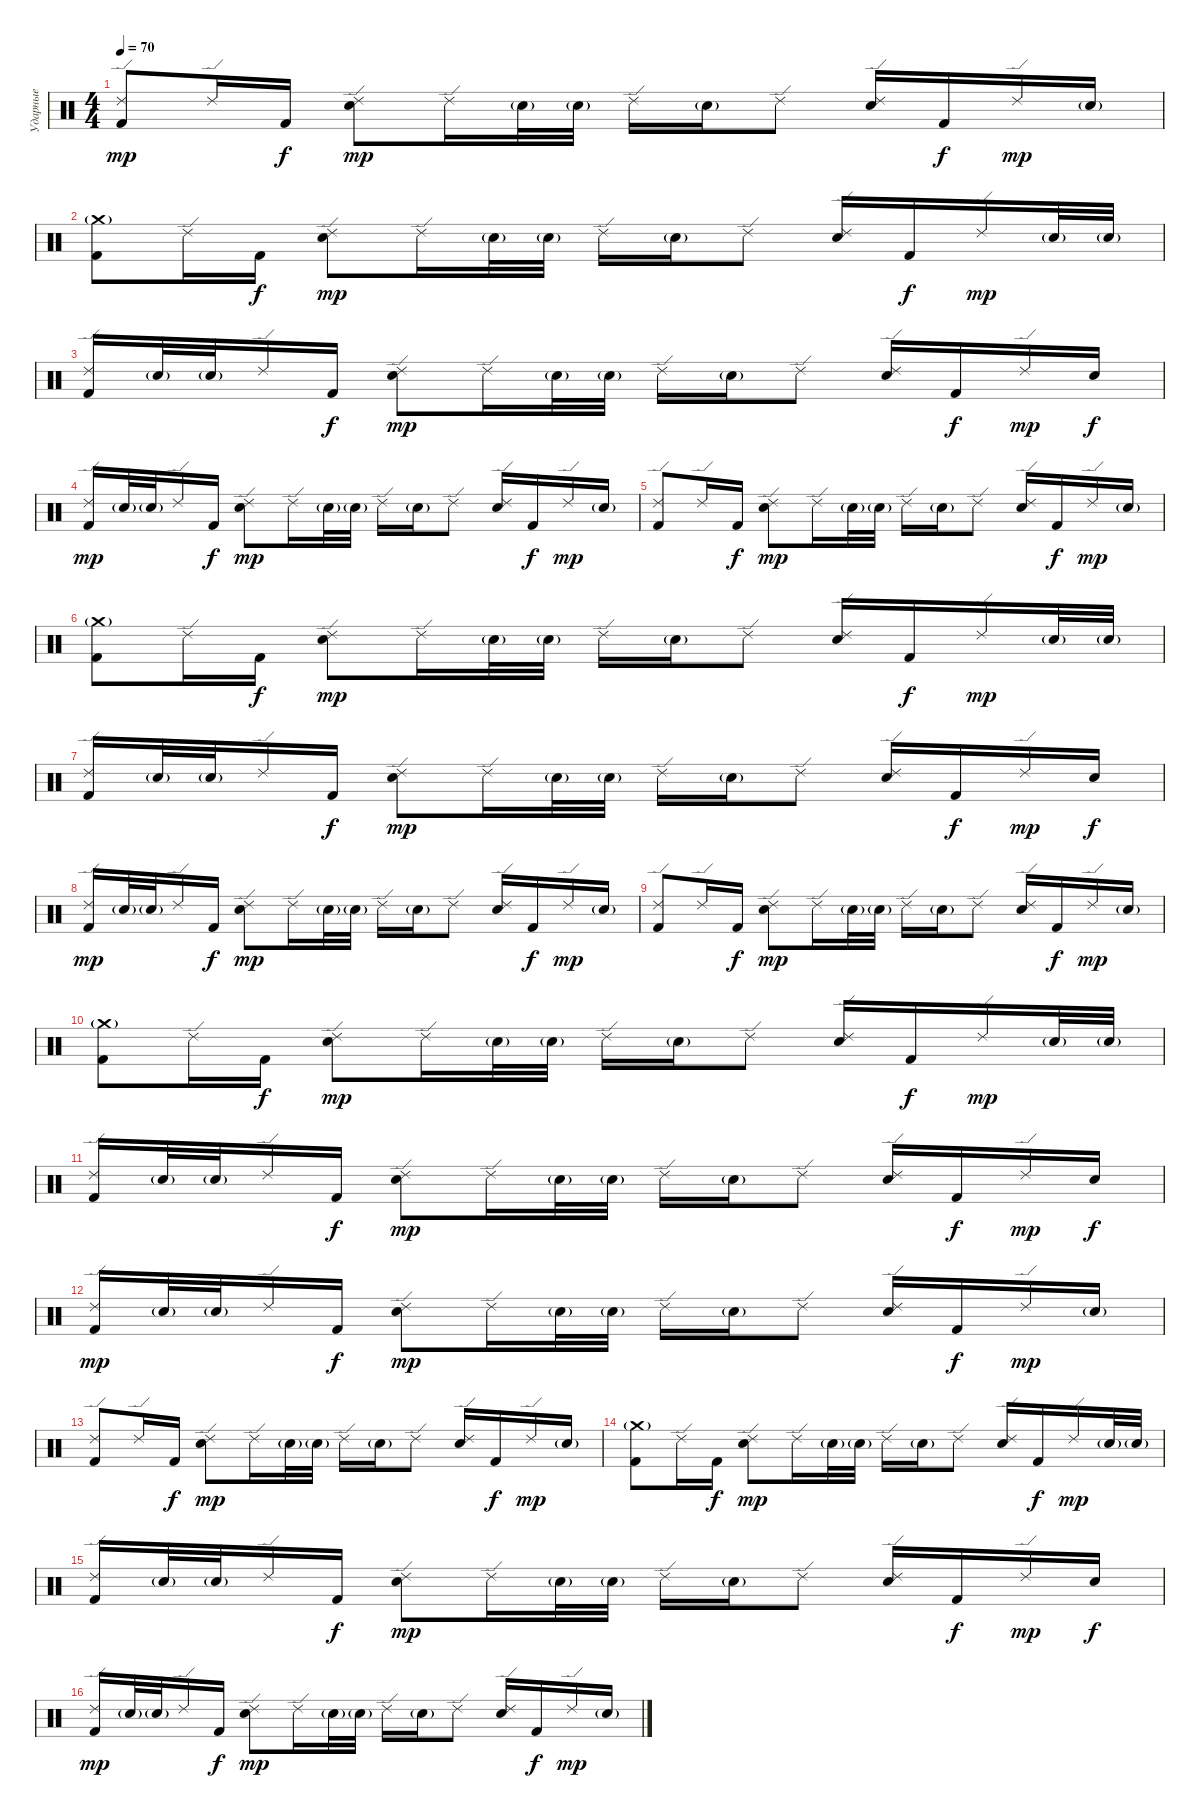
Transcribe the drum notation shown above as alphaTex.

\track ("Ударные" "Ударные") {instrument percussion}
\staff {score}
\articulation defaults
\ts (4 4)
\tempo 70
\clef neutral
\ks c
("Ride (edge) 2" "Kick (hit) 2").8{dy mp} "Ride (edge) 2".16 "Kick (hit) 2".16{dy f} ("Ride (edge) 2" "Snare (hit) 2").8{dy mp} "Ride (edge) 2".16 "Snare (hit) 2"{g}.32 "Snare (hit) 2"{g}.32 "Ride (edge) 2".16 "Snare (hit) 2"{g}.16 "Ride (edge) 2".8 ("Ride (edge) 2" "Snare (hit) 2").16 "Kick (hit) 2".16{dy f} "Ride (edge) 2".16{dy mp} "Snare (hit) 2"{g}.16 |
("Crash medium (hit)"{g} "Kick (hit) 2").8 "Ride (edge) 2".16 "Kick (hit) 2".16{dy f} ("Ride (edge) 2" "Snare (hit) 2").8{dy mp} "Ride (edge) 2".16 "Snare (hit) 2"{g}.32 "Snare (hit) 2"{g}.32 "Ride (edge) 2".16 "Snare (hit) 2"{g}.16 "Ride (edge) 2".8 ("Ride (edge) 2" "Snare (hit) 2").16 "Kick (hit) 2".16{dy f} "Ride (edge) 2".16{dy mp} "Snare (hit) 2"{g}.32 "Snare (hit) 2"{g}.32 |
("Ride (edge) 2" "Kick (hit) 2").16 "Snare (hit) 2"{g}.32 "Snare (hit) 2"{g}.32 "Ride (edge) 2".16 "Kick (hit) 2".16{dy f} ("Ride (edge) 2" "Snare (hit) 2").8{dy mp} "Ride (edge) 2".16 "Snare (hit) 2"{g}.32 "Snare (hit) 2"{g}.32 "Ride (edge) 2".16 "Snare (hit) 2"{g}.16 "Ride (edge) 2".8 ("Ride (edge) 2" "Snare (hit) 2").16 "Kick (hit) 2".16{dy f} "Ride (edge) 2".16{dy mp} "Snare (hit) 2".16{dy f} |
("Ride (edge) 2" "Kick (hit) 2").16{dy mp} "Snare (hit) 2"{g}.32 "Snare (hit) 2"{g}.32 "Ride (edge) 2".16 "Kick (hit) 2".16{dy f} ("Ride (edge) 2" "Snare (hit) 2").8{dy mp} "Ride (edge) 2".16 "Snare (hit) 2"{g}.32 "Snare (hit) 2"{g}.32 "Ride (edge) 2".16 "Snare (hit) 2"{g}.16 "Ride (edge) 2".8 ("Ride (edge) 2" "Snare (hit) 2").16 "Kick (hit) 2".16{dy f} "Ride (edge) 2".16{dy mp} "Snare (hit) 2"{g}.16 |
("Ride (edge) 2" "Kick (hit) 2").8 "Ride (edge) 2".16 "Kick (hit) 2".16{dy f} ("Ride (edge) 2" "Snare (hit) 2").8{dy mp} "Ride (edge) 2".16 "Snare (hit) 2"{g}.32 "Snare (hit) 2"{g}.32 "Ride (edge) 2".16 "Snare (hit) 2"{g}.16 "Ride (edge) 2".8 ("Ride (edge) 2" "Snare (hit) 2").16 "Kick (hit) 2".16{dy f} "Ride (edge) 2".16{dy mp} "Snare (hit) 2"{g}.16 |
("Crash medium (hit)"{g} "Kick (hit) 2").8 "Ride (edge) 2".16 "Kick (hit) 2".16{dy f} ("Ride (edge) 2" "Snare (hit) 2").8{dy mp} "Ride (edge) 2".16 "Snare (hit) 2"{g}.32 "Snare (hit) 2"{g}.32 "Ride (edge) 2".16 "Snare (hit) 2"{g}.16 "Ride (edge) 2".8 ("Ride (edge) 2" "Snare (hit) 2").16 "Kick (hit) 2".16{dy f} "Ride (edge) 2".16{dy mp} "Snare (hit) 2"{g}.32 "Snare (hit) 2"{g}.32 |
("Ride (edge) 2" "Kick (hit) 2").16 "Snare (hit) 2"{g}.32 "Snare (hit) 2"{g}.32 "Ride (edge) 2".16 "Kick (hit) 2".16{dy f} ("Ride (edge) 2" "Snare (hit) 2").8{dy mp} "Ride (edge) 2".16 "Snare (hit) 2"{g}.32 "Snare (hit) 2"{g}.32 "Ride (edge) 2".16 "Snare (hit) 2"{g}.16 "Ride (edge) 2".8 ("Ride (edge) 2" "Snare (hit) 2").16 "Kick (hit) 2".16{dy f} "Ride (edge) 2".16{dy mp} "Snare (hit) 2".16{dy f} |
("Ride (edge) 2" "Kick (hit) 2").16{dy mp} "Snare (hit) 2"{g}.32 "Snare (hit) 2"{g}.32 "Ride (edge) 2".16 "Kick (hit) 2".16{dy f} ("Ride (edge) 2" "Snare (hit) 2").8{dy mp} "Ride (edge) 2".16 "Snare (hit) 2"{g}.32 "Snare (hit) 2"{g}.32 "Ride (edge) 2".16 "Snare (hit) 2"{g}.16 "Ride (edge) 2".8 ("Ride (edge) 2" "Snare (hit) 2").16 "Kick (hit) 2".16{dy f} "Ride (edge) 2".16{dy mp} "Snare (hit) 2"{g}.16 |
("Ride (edge) 2" "Kick (hit) 2").8 "Ride (edge) 2".16 "Kick (hit) 2".16{dy f} ("Ride (edge) 2" "Snare (hit) 2").8{dy mp} "Ride (edge) 2".16 "Snare (hit) 2"{g}.32 "Snare (hit) 2"{g}.32 "Ride (edge) 2".16 "Snare (hit) 2"{g}.16 "Ride (edge) 2".8 ("Ride (edge) 2" "Snare (hit) 2").16 "Kick (hit) 2".16{dy f} "Ride (edge) 2".16{dy mp} "Snare (hit) 2"{g}.16 |
("Crash medium (hit)"{g} "Kick (hit) 2").8 "Ride (edge) 2".16 "Kick (hit) 2".16{dy f} ("Ride (edge) 2" "Snare (hit) 2").8{dy mp} "Ride (edge) 2".16 "Snare (hit) 2"{g}.32 "Snare (hit) 2"{g}.32 "Ride (edge) 2".16 "Snare (hit) 2"{g}.16 "Ride (edge) 2".8 ("Ride (edge) 2" "Snare (hit) 2").16 "Kick (hit) 2".16{dy f} "Ride (edge) 2".16{dy mp} "Snare (hit) 2"{g}.32 "Snare (hit) 2"{g}.32 |
("Ride (edge) 2" "Kick (hit) 2").16 "Snare (hit) 2"{g}.32 "Snare (hit) 2"{g}.32 "Ride (edge) 2".16 "Kick (hit) 2".16{dy f} ("Ride (edge) 2" "Snare (hit) 2").8{dy mp} "Ride (edge) 2".16 "Snare (hit) 2"{g}.32 "Snare (hit) 2"{g}.32 "Ride (edge) 2".16 "Snare (hit) 2"{g}.16 "Ride (edge) 2".8 ("Ride (edge) 2" "Snare (hit) 2").16 "Kick (hit) 2".16{dy f} "Ride (edge) 2".16{dy mp} "Snare (hit) 2".16{dy f} |
("Ride (edge) 2" "Kick (hit) 2").16{dy mp} "Snare (hit) 2"{g}.32 "Snare (hit) 2"{g}.32 "Ride (edge) 2".16 "Kick (hit) 2".16{dy f} ("Ride (edge) 2" "Snare (hit) 2").8{dy mp} "Ride (edge) 2".16 "Snare (hit) 2"{g}.32 "Snare (hit) 2"{g}.32 "Ride (edge) 2".16 "Snare (hit) 2"{g}.16 "Ride (edge) 2".8 ("Ride (edge) 2" "Snare (hit) 2").16 "Kick (hit) 2".16{dy f} "Ride (edge) 2".16{dy mp} "Snare (hit) 2"{g}.16 |
("Ride (edge) 2" "Kick (hit) 2").8 "Ride (edge) 2".16 "Kick (hit) 2".16{dy f} ("Ride (edge) 2" "Snare (hit) 2").8{dy mp} "Ride (edge) 2".16 "Snare (hit) 2"{g}.32 "Snare (hit) 2"{g}.32 "Ride (edge) 2".16 "Snare (hit) 2"{g}.16 "Ride (edge) 2".8 ("Ride (edge) 2" "Snare (hit) 2").16 "Kick (hit) 2".16{dy f} "Ride (edge) 2".16{dy mp} "Snare (hit) 2"{g}.16 |
("Crash medium (hit)"{g} "Kick (hit) 2").8 "Ride (edge) 2".16 "Kick (hit) 2".16{dy f} ("Ride (edge) 2" "Snare (hit) 2").8{dy mp} "Ride (edge) 2".16 "Snare (hit) 2"{g}.32 "Snare (hit) 2"{g}.32 "Ride (edge) 2".16 "Snare (hit) 2"{g}.16 "Ride (edge) 2".8 ("Ride (edge) 2" "Snare (hit) 2").16 "Kick (hit) 2".16{dy f} "Ride (edge) 2".16{dy mp} "Snare (hit) 2"{g}.32 "Snare (hit) 2"{g}.32 |
("Ride (edge) 2" "Kick (hit) 2").16 "Snare (hit) 2"{g}.32 "Snare (hit) 2"{g}.32 "Ride (edge) 2".16 "Kick (hit) 2".16{dy f} ("Ride (edge) 2" "Snare (hit) 2").8{dy mp} "Ride (edge) 2".16 "Snare (hit) 2"{g}.32 "Snare (hit) 2"{g}.32 "Ride (edge) 2".16 "Snare (hit) 2"{g}.16 "Ride (edge) 2".8 ("Ride (edge) 2" "Snare (hit) 2").16 "Kick (hit) 2".16{dy f} "Ride (edge) 2".16{dy mp} "Snare (hit) 2".16{dy f} |
("Ride (edge) 2" "Kick (hit) 2").16{dy mp} "Snare (hit) 2"{g}.32 "Snare (hit) 2"{g}.32 "Ride (edge) 2".16 "Kick (hit) 2".16{dy f} ("Ride (edge) 2" "Snare (hit) 2").8{dy mp} "Ride (edge) 2".16 "Snare (hit) 2"{g}.32 "Snare (hit) 2"{g}.32 "Ride (edge) 2".16 "Snare (hit) 2"{g}.16 "Ride (edge) 2".8 ("Ride (edge) 2" "Snare (hit) 2").16 "Kick (hit) 2".16{dy f} "Ride (edge) 2".16{dy mp} "Snare (hit) 2"{g}.16
